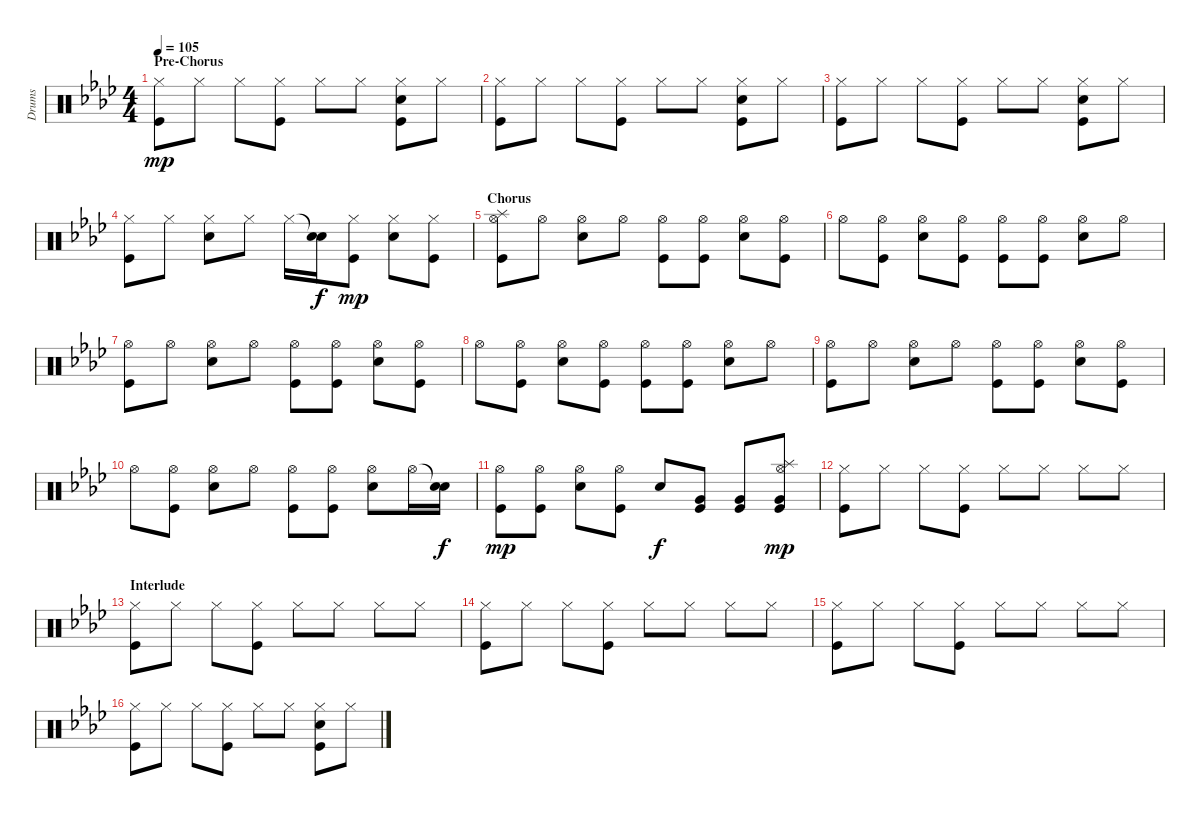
\track ("Drums" "Drums") {instrument percussion}
\staff {score}
\articulation defaults
\ts (4 4)
\section ("" "Pre-Chorus")
\tempo 105
\clef neutral
\ks ab
("Hi-Hat (closed)" "Kick (hit)").8{dy mp} "Hi-Hat (closed)".8 "Hi-Hat (closed)".8 ("Hi-Hat (closed)" "Kick (hit)").8 "Hi-Hat (closed)".8 "Hi-Hat (closed)".8 ("Hi-Hat (closed)" "Electric Snare (hit)" "Kick (hit)").8 "Hi-Hat (closed)".8 |
("Hi-Hat (closed)" "Kick (hit)").8 "Hi-Hat (closed)".8 "Hi-Hat (closed)".8 ("Hi-Hat (closed)" "Kick (hit)").8 "Hi-Hat (closed)".8 "Hi-Hat (closed)".8 ("Hi-Hat (closed)" "Electric Snare (hit)" "Kick (hit)").8 "Hi-Hat (closed)".8 |
("Hi-Hat (closed)" "Kick (hit)").8 "Hi-Hat (closed)".8 "Hi-Hat (closed)".8 ("Hi-Hat (closed)" "Kick (hit)").8 "Hi-Hat (closed)".8 "Hi-Hat (closed)".8 ("Hi-Hat (closed)" "Electric Snare (hit)" "Kick (hit)").8 "Hi-Hat (closed)".8 |
("Hi-Hat (closed)" "Kick (hit)").8 "Hi-Hat (closed)".8 ("Hi-Hat (closed)" "Electric Snare (hit)").8 "Hi-Hat (closed)".8 "Hi-Hat (closed)".16 ("Snare (hit)"{t} "Electric Snare (hit)").16{dy f} ("Hi-Hat (closed)" "Kick (hit)").8{dy mp} ("Hi-Hat (closed)" "Electric Snare (hit)").8 ("Hi-Hat (closed)" "Kick (hit)").8 |
\section ("" "Chorus")
("Splash (hit)" "Hi-Hat (open)" "Kick (hit)").8 "Hi-Hat (open)".8 ("Hi-Hat (open)" "Electric Snare (hit)").8 "Hi-Hat (open)".8 ("Hi-Hat (open)" "Kick (hit)").8 ("Hi-Hat (open)" "Kick (hit)").8 ("Hi-Hat (open)" "Electric Snare (hit)").8 ("Hi-Hat (open)" "Kick (hit)").8 |
"Hi-Hat (open)".8 ("Hi-Hat (open)" "Kick (hit)").8 ("Hi-Hat (open)" "Electric Snare (hit)").8 ("Hi-Hat (open)" "Kick (hit)").8 ("Hi-Hat (open)" "Kick (hit)").8 ("Hi-Hat (open)" "Kick (hit)").8 ("Hi-Hat (open)" "Electric Snare (hit)").8 "Hi-Hat (open)".8 |
("Hi-Hat (open)" "Kick (hit)").8 "Hi-Hat (open)".8 ("Hi-Hat (open)" "Electric Snare (hit)").8 "Hi-Hat (open)".8 ("Hi-Hat (open)" "Kick (hit)").8 ("Hi-Hat (open)" "Kick (hit)").8 ("Hi-Hat (open)" "Electric Snare (hit)").8 ("Hi-Hat (open)" "Kick (hit)").8 |
"Hi-Hat (open)".8 ("Hi-Hat (open)" "Kick (hit)").8 ("Hi-Hat (open)" "Electric Snare (hit)").8 ("Hi-Hat (open)" "Kick (hit)").8 ("Hi-Hat (open)" "Kick (hit)").8 ("Hi-Hat (open)" "Kick (hit)").8 ("Hi-Hat (open)" "Electric Snare (hit)").8 "Hi-Hat (open)".8 |
("Hi-Hat (open)" "Kick (hit)").8 "Hi-Hat (open)".8 ("Hi-Hat (open)" "Electric Snare (hit)").8 "Hi-Hat (open)".8 ("Hi-Hat (open)" "Kick (hit)").8 ("Hi-Hat (open)" "Kick (hit)").8 ("Hi-Hat (open)" "Electric Snare (hit)").8 ("Hi-Hat (open)" "Kick (hit)").8 |
"Hi-Hat (open)".8 ("Hi-Hat (open)" "Kick (hit)").8 ("Hi-Hat (open)" "Electric Snare (hit)").8 "Hi-Hat (open)".8 ("Hi-Hat (open)" "Kick (hit)").8 ("Hi-Hat (open)" "Kick (hit)").8 ("Hi-Hat (open)" "Electric Snare (hit)").8 "Hi-Hat (open)".16 ("Snare (hit)"{t} "Electric Snare (hit)").16{dy f} |
("Hi-Hat (open)" "Kick (hit)").8{dy mp} ("Hi-Hat (open)" "Kick (hit)").8 ("Hi-Hat (open)" "Electric Snare (hit)").8 ("Hi-Hat (open)" "Kick (hit)").8 "Electric Snare (hit)".8{dy f} ("Very Low Tom (hit)" "Kick (hit)").8 ("Very Low Tom (hit)" "Kick (hit)").8 ("Splash (hit)" "Hi-Hat (open)" "Very Low Tom (hit)" "Kick (hit)").8{dy mp} |
("Hi-Hat (closed)" "Kick (hit)").8 "Hi-Hat (closed)".8 "Hi-Hat (closed)".8 ("Hi-Hat (closed)" "Kick (hit)").8 "Hi-Hat (closed)".8 "Hi-Hat (closed)".8 "Hi-Hat (closed)".8 "Hi-Hat (closed)".8 |
\section ("" "Interlude")
("Hi-Hat (closed)" "Kick (hit)").8 "Hi-Hat (closed)".8 "Hi-Hat (closed)".8 ("Hi-Hat (closed)" "Kick (hit)").8 "Hi-Hat (closed)".8 "Hi-Hat (closed)".8 "Hi-Hat (closed)".8 "Hi-Hat (closed)".8 |
("Hi-Hat (closed)" "Kick (hit)").8 "Hi-Hat (closed)".8 "Hi-Hat (closed)".8 ("Hi-Hat (closed)" "Kick (hit)").8 "Hi-Hat (closed)".8 "Hi-Hat (closed)".8 "Hi-Hat (closed)".8 "Hi-Hat (closed)".8 |
("Hi-Hat (closed)" "Kick (hit)").8 "Hi-Hat (closed)".8 "Hi-Hat (closed)".8 ("Hi-Hat (closed)" "Kick (hit)").8 "Hi-Hat (closed)".8 "Hi-Hat (closed)".8 "Hi-Hat (closed)".8 "Hi-Hat (closed)".8 |
("Hi-Hat (closed)" "Kick (hit)").8 "Hi-Hat (closed)".8 "Hi-Hat (closed)".8 ("Hi-Hat (closed)" "Kick (hit)").8 "Hi-Hat (closed)".8 "Hi-Hat (closed)".8 ("Hi-Hat (closed)" "Electric Snare (hit)" "Kick (hit)").8 "Hi-Hat (closed)".8
